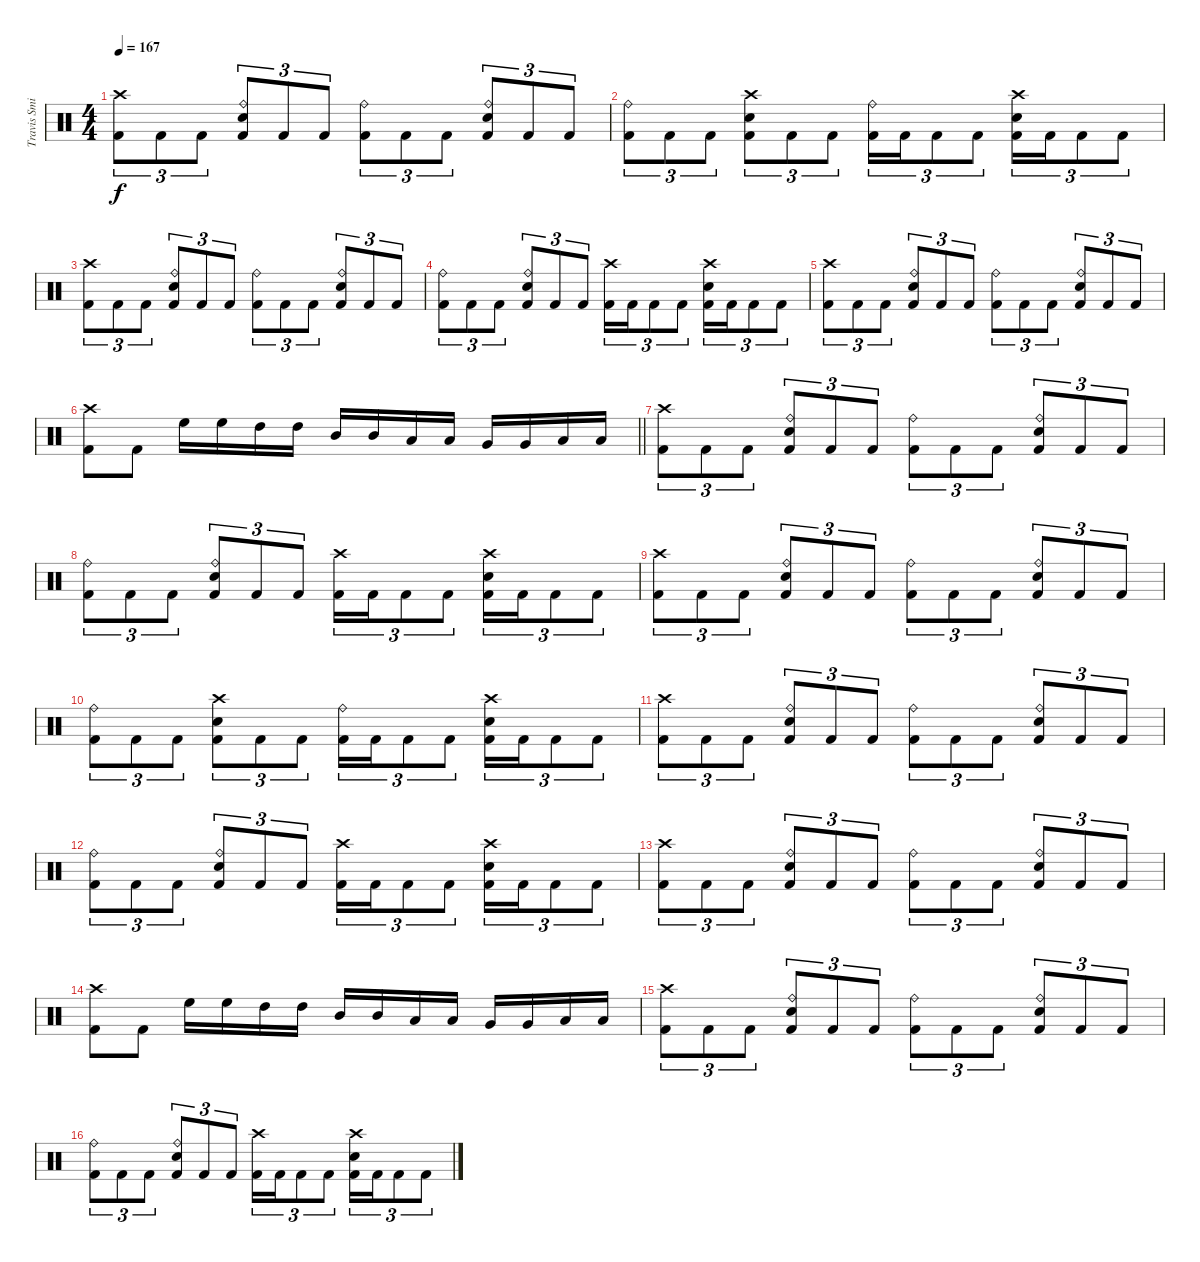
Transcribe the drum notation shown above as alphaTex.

\track ("Travis Smith" "Travis Smi") {instrument percussion}
\staff {score}
\articulation defaults
\ts (4 4)
\tempo 167
\clef neutral
\ks c
("Crash high (hit)" "Kick (hit) 2").8{tu (3 2) dy f} "Kick (hit) 2".8{tu (3 2)} "Kick (hit) 2".8{tu (3 2)} ("Ride (bell)" "Snare (hit) 2" "Kick (hit) 2").8{tu (3 2)} "Kick (hit) 2".8{tu (3 2)} "Kick (hit) 2".8{tu (3 2)} ("Ride (bell)" "Kick (hit) 2").8{tu (3 2)} "Kick (hit) 2".8{tu (3 2)} "Kick (hit) 2".8{tu (3 2)} ("Ride (bell)" "Snare (hit) 2" "Kick (hit) 2").8{tu (3 2)} "Kick (hit) 2".8{tu (3 2)} "Kick (hit) 2".8{tu (3 2)} |
("Ride (bell)" "Kick (hit) 2").8{tu (3 2)} "Kick (hit) 2".8{tu (3 2)} "Kick (hit) 2".8{tu (3 2)} ("Crash high (hit)" "Snare (hit) 2" "Kick (hit) 2").8{tu (3 2)} "Kick (hit) 2".8{tu (3 2)} "Kick (hit) 2".8{tu (3 2)} ("Ride (bell)" "Kick (hit) 2").16{tu (3 2)} "Kick (hit) 2".16{tu (3 2)} "Kick (hit) 2".8{tu (3 2)} "Kick (hit) 2".8{tu (3 2)} ("Crash high (hit)" "Snare (hit) 2" "Kick (hit) 2").16{tu (3 2)} "Kick (hit) 2".16{tu (3 2)} "Kick (hit) 2".8{tu (3 2)} "Kick (hit) 2".8{tu (3 2)} |
("Crash high (hit)" "Kick (hit) 2").8{tu (3 2)} "Kick (hit) 2".8{tu (3 2)} "Kick (hit) 2".8{tu (3 2)} ("Ride (bell)" "Snare (hit) 2" "Kick (hit) 2").8{tu (3 2)} "Kick (hit) 2".8{tu (3 2)} "Kick (hit) 2".8{tu (3 2)} ("Ride (bell)" "Kick (hit) 2").8{tu (3 2)} "Kick (hit) 2".8{tu (3 2)} "Kick (hit) 2".8{tu (3 2)} ("Ride (bell)" "Snare (hit) 2" "Kick (hit) 2").8{tu (3 2)} "Kick (hit) 2".8{tu (3 2)} "Kick (hit) 2".8{tu (3 2)} |
("Ride (bell)" "Kick (hit) 2").8{tu (3 2)} "Kick (hit) 2".8{tu (3 2)} "Kick (hit) 2".8{tu (3 2)} ("Ride (bell)" "Snare (hit) 2" "Kick (hit) 2").8{tu (3 2)} "Kick (hit) 2".8{tu (3 2)} "Kick (hit) 2".8{tu (3 2)} ("Crash high (hit)" "Kick (hit) 2").16{tu (3 2)} "Kick (hit) 2".16{tu (3 2)} "Kick (hit) 2".8{tu (3 2)} "Kick (hit) 2".8{tu (3 2)} ("Crash high (hit)" "Snare (hit) 2" "Kick (hit) 2").16{tu (3 2)} "Kick (hit) 2".16{tu (3 2)} "Kick (hit) 2".8{tu (3 2)} "Kick (hit) 2".8{tu (3 2)} |
("Crash high (hit)" "Kick (hit) 2").8{tu (3 2)} "Kick (hit) 2".8{tu (3 2)} "Kick (hit) 2".8{tu (3 2)} ("Ride (bell)" "Snare (hit) 2" "Kick (hit) 2").8{tu (3 2)} "Kick (hit) 2".8{tu (3 2)} "Kick (hit) 2".8{tu (3 2)} ("Ride (bell)" "Kick (hit) 2").8{tu (3 2)} "Kick (hit) 2".8{tu (3 2)} "Kick (hit) 2".8{tu (3 2)} ("Ride (bell)" "Snare (hit) 2" "Kick (hit) 2").8{tu (3 2)} "Kick (hit) 2".8{tu (3 2)} "Kick (hit) 2".8{tu (3 2)} |
\barLineRight lightlight
("Crash high (hit)" "Kick (hit) 2").8 "Kick (hit) 2".8 "High Floor Tom (hit)".16 "High Floor Tom (hit)".16 "High Tom (hit)".16 "High Tom (hit)".16 "Mid Tom (hit)".16 "Mid Tom (hit)".16 "Low Tom (hit)".16 "Low Tom (hit)".16 "Very Low Tom (hit)".16 "Very Low Tom (hit)".16 "Low Floor Tom (hit)".16 "Low Floor Tom (hit)".16 |
("Crash high (hit)" "Kick (hit) 2").8{tu (3 2)} "Kick (hit) 2".8{tu (3 2)} "Kick (hit) 2".8{tu (3 2)} ("Ride (bell)" "Snare (hit) 2" "Kick (hit) 2").8{tu (3 2)} "Kick (hit) 2".8{tu (3 2)} "Kick (hit) 2".8{tu (3 2)} ("Ride (bell)" "Kick (hit) 2").8{tu (3 2)} "Kick (hit) 2".8{tu (3 2)} "Kick (hit) 2".8{tu (3 2)} ("Ride (bell)" "Snare (hit) 2" "Kick (hit) 2").8{tu (3 2)} "Kick (hit) 2".8{tu (3 2)} "Kick (hit) 2".8{tu (3 2)} |
("Ride (bell)" "Kick (hit) 2").8{tu (3 2)} "Kick (hit) 2".8{tu (3 2)} "Kick (hit) 2".8{tu (3 2)} ("Ride (bell)" "Snare (hit) 2" "Kick (hit) 2").8{tu (3 2)} "Kick (hit) 2".8{tu (3 2)} "Kick (hit) 2".8{tu (3 2)} ("Crash high (hit)" "Kick (hit) 2").16{tu (3 2)} "Kick (hit) 2".16{tu (3 2)} "Kick (hit) 2".8{tu (3 2)} "Kick (hit) 2".8{tu (3 2)} ("Crash high (hit)" "Snare (hit) 2" "Kick (hit) 2").16{tu (3 2)} "Kick (hit) 2".16{tu (3 2)} "Kick (hit) 2".8{tu (3 2)} "Kick (hit) 2".8{tu (3 2)} |
("Crash high (hit)" "Kick (hit) 2").8{tu (3 2)} "Kick (hit) 2".8{tu (3 2)} "Kick (hit) 2".8{tu (3 2)} ("Ride (bell)" "Snare (hit) 2" "Kick (hit) 2").8{tu (3 2)} "Kick (hit) 2".8{tu (3 2)} "Kick (hit) 2".8{tu (3 2)} ("Ride (bell)" "Kick (hit) 2").8{tu (3 2)} "Kick (hit) 2".8{tu (3 2)} "Kick (hit) 2".8{tu (3 2)} ("Ride (bell)" "Snare (hit) 2" "Kick (hit) 2").8{tu (3 2)} "Kick (hit) 2".8{tu (3 2)} "Kick (hit) 2".8{tu (3 2)} |
("Ride (bell)" "Kick (hit) 2").8{tu (3 2)} "Kick (hit) 2".8{tu (3 2)} "Kick (hit) 2".8{tu (3 2)} ("Crash high (hit)" "Snare (hit) 2" "Kick (hit) 2").8{tu (3 2)} "Kick (hit) 2".8{tu (3 2)} "Kick (hit) 2".8{tu (3 2)} ("Ride (bell)" "Kick (hit) 2").16{tu (3 2)} "Kick (hit) 2".16{tu (3 2)} "Kick (hit) 2".8{tu (3 2)} "Kick (hit) 2".8{tu (3 2)} ("Crash high (hit)" "Snare (hit) 2" "Kick (hit) 2").16{tu (3 2)} "Kick (hit) 2".16{tu (3 2)} "Kick (hit) 2".8{tu (3 2)} "Kick (hit) 2".8{tu (3 2)} |
("Crash high (hit)" "Kick (hit) 2").8{tu (3 2)} "Kick (hit) 2".8{tu (3 2)} "Kick (hit) 2".8{tu (3 2)} ("Ride (bell)" "Snare (hit) 2" "Kick (hit) 2").8{tu (3 2)} "Kick (hit) 2".8{tu (3 2)} "Kick (hit) 2".8{tu (3 2)} ("Ride (bell)" "Kick (hit) 2").8{tu (3 2)} "Kick (hit) 2".8{tu (3 2)} "Kick (hit) 2".8{tu (3 2)} ("Ride (bell)" "Snare (hit) 2" "Kick (hit) 2").8{tu (3 2)} "Kick (hit) 2".8{tu (3 2)} "Kick (hit) 2".8{tu (3 2)} |
("Ride (bell)" "Kick (hit) 2").8{tu (3 2)} "Kick (hit) 2".8{tu (3 2)} "Kick (hit) 2".8{tu (3 2)} ("Ride (bell)" "Snare (hit) 2" "Kick (hit) 2").8{tu (3 2)} "Kick (hit) 2".8{tu (3 2)} "Kick (hit) 2".8{tu (3 2)} ("Crash high (hit)" "Kick (hit) 2").16{tu (3 2)} "Kick (hit) 2".16{tu (3 2)} "Kick (hit) 2".8{tu (3 2)} "Kick (hit) 2".8{tu (3 2)} ("Crash high (hit)" "Snare (hit) 2" "Kick (hit) 2").16{tu (3 2)} "Kick (hit) 2".16{tu (3 2)} "Kick (hit) 2".8{tu (3 2)} "Kick (hit) 2".8{tu (3 2)} |
("Crash high (hit)" "Kick (hit) 2").8{tu (3 2)} "Kick (hit) 2".8{tu (3 2)} "Kick (hit) 2".8{tu (3 2)} ("Ride (bell)" "Snare (hit) 2" "Kick (hit) 2").8{tu (3 2)} "Kick (hit) 2".8{tu (3 2)} "Kick (hit) 2".8{tu (3 2)} ("Ride (bell)" "Kick (hit) 2").8{tu (3 2)} "Kick (hit) 2".8{tu (3 2)} "Kick (hit) 2".8{tu (3 2)} ("Ride (bell)" "Snare (hit) 2" "Kick (hit) 2").8{tu (3 2)} "Kick (hit) 2".8{tu (3 2)} "Kick (hit) 2".8{tu (3 2)} |
("Crash high (hit)" "Kick (hit) 2").8 "Kick (hit) 2".8 "High Floor Tom (hit)".16 "High Floor Tom (hit)".16 "High Tom (hit)".16 "High Tom (hit)".16 "Mid Tom (hit)".16 "Mid Tom (hit)".16 "Low Tom (hit)".16 "Low Tom (hit)".16 "Very Low Tom (hit)".16 "Very Low Tom (hit)".16 "Low Floor Tom (hit)".16 "Low Floor Tom (hit)".16 |
("Crash high (hit)" "Kick (hit) 2").8{tu (3 2)} "Kick (hit) 2".8{tu (3 2)} "Kick (hit) 2".8{tu (3 2)} ("Ride (bell)" "Snare (hit) 2" "Kick (hit) 2").8{tu (3 2)} "Kick (hit) 2".8{tu (3 2)} "Kick (hit) 2".8{tu (3 2)} ("Ride (bell)" "Kick (hit) 2").8{tu (3 2)} "Kick (hit) 2".8{tu (3 2)} "Kick (hit) 2".8{tu (3 2)} ("Ride (bell)" "Snare (hit) 2" "Kick (hit) 2").8{tu (3 2)} "Kick (hit) 2".8{tu (3 2)} "Kick (hit) 2".8{tu (3 2)} |
("Ride (bell)" "Kick (hit) 2").8{tu (3 2)} "Kick (hit) 2".8{tu (3 2)} "Kick (hit) 2".8{tu (3 2)} ("Ride (bell)" "Snare (hit) 2" "Kick (hit) 2").8{tu (3 2)} "Kick (hit) 2".8{tu (3 2)} "Kick (hit) 2".8{tu (3 2)} ("Crash high (hit)" "Kick (hit) 2").16{tu (3 2)} "Kick (hit) 2".16{tu (3 2)} "Kick (hit) 2".8{tu (3 2)} "Kick (hit) 2".8{tu (3 2)} ("Crash high (hit)" "Snare (hit) 2" "Kick (hit) 2").16{tu (3 2)} "Kick (hit) 2".16{tu (3 2)} "Kick (hit) 2".8{tu (3 2)} "Kick (hit) 2".8{tu (3 2)}
